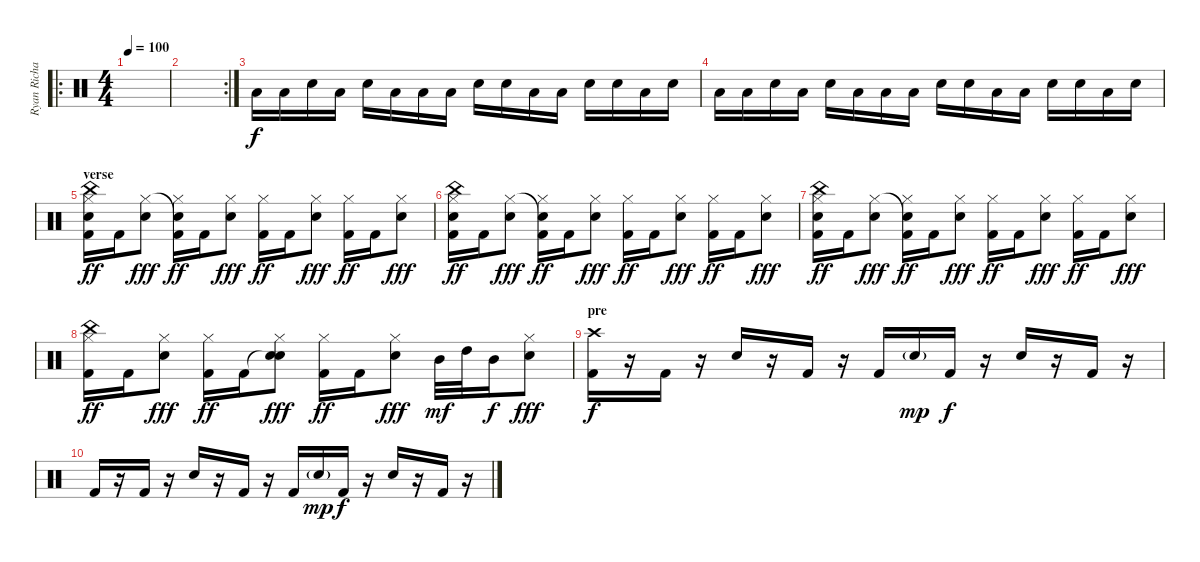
\track ("Ryan Richards" "Ryan Richa") {instrument percussion}
\staff {score}
\articulation defaults
\ro
\ts (4 4)
\tempo 100
\clef neutral
\ks c
|
\rc 2
|
"Low Tom (hit)".16 "Low Tom (hit)".16 "Snare (hit) 2".16 "Low Tom (hit)".16 "Snare (hit) 2".16 "Low Tom (hit)".16 "Low Tom (hit)".16 "Low Tom (hit)".16 "Snare (hit) 2".16 "Snare (hit) 2".16 "Low Tom (hit)".16 "Low Tom (hit)".16 "Snare (hit) 2".16 "Snare (hit) 2".16 "Low Tom (hit)".16 "Snare (hit) 2".16 |
"Low Tom (hit)".16 "Low Tom (hit)".16 "Snare (hit) 2".16 "Low Tom (hit)".16 "Snare (hit) 2".16 "Low Tom (hit)".16 "Low Tom (hit)".16 "Low Tom (hit)".16 "Snare (hit) 2".16 "Snare (hit) 2".16 "Low Tom (hit)".16 "Low Tom (hit)".16 "Snare (hit) 2".16 "Snare (hit) 2".16 "Low Tom (hit)".16 "Snare (hit) 2".16 |
\section ("" "verse")
("China (hit)" "Hi-Hat (closed)" "Snare (hit) 2" "Kick (hit) 2").16{dy ff} "Kick (hit) 2".16 ("Hi-Hat (closed)" "Electric Snare (hit)").8{dy fff} ("Snare (hit)"{t} "Hi-Hat (closed)" "Kick (hit) 2").16{dy ff} "Kick (hit) 2".16 ("Hi-Hat (closed)" "Electric Snare (hit)").8{dy fff} ("Hi-Hat (closed)" "Kick (hit) 2").16{dy ff} "Kick (hit) 2".16 ("Hi-Hat (closed)" "Electric Snare (hit)").8{dy fff} ("Hi-Hat (closed)" "Kick (hit) 2").16{dy ff} "Kick (hit) 2".16 ("Hi-Hat (closed)" "Electric Snare (hit)").8{dy fff} |
("China (hit)" "Hi-Hat (closed)" "Snare (hit) 2" "Kick (hit) 2").16{dy ff} "Kick (hit) 2".16 ("Hi-Hat (closed)" "Electric Snare (hit)").8{dy fff} ("Snare (hit)"{t} "Hi-Hat (closed)" "Kick (hit) 2").16{dy ff} "Kick (hit) 2".16 ("Hi-Hat (closed)" "Electric Snare (hit)").8{dy fff} ("Hi-Hat (closed)" "Kick (hit) 2").16{dy ff} "Kick (hit) 2".16 ("Hi-Hat (closed)" "Electric Snare (hit)").8{dy fff} ("Hi-Hat (closed)" "Kick (hit) 2").16{dy ff} "Kick (hit) 2".16 ("Hi-Hat (closed)" "Electric Snare (hit)").8{dy fff} |
("China (hit)" "Hi-Hat (closed)" "Snare (hit) 2" "Kick (hit) 2").16{dy ff} "Kick (hit) 2".16 ("Hi-Hat (closed)" "Electric Snare (hit)").8{dy fff} ("Snare (hit)"{t} "Hi-Hat (closed)" "Kick (hit) 2").16{dy ff} "Kick (hit) 2".16 ("Hi-Hat (closed)" "Electric Snare (hit)").8{dy fff} ("Hi-Hat (closed)" "Kick (hit) 2").16{dy ff} "Kick (hit) 2".16 ("Hi-Hat (closed)" "Electric Snare (hit)").8{dy fff} ("Hi-Hat (closed)" "Kick (hit) 2").16{dy ff} "Kick (hit) 2".16 ("Hi-Hat (closed)" "Electric Snare (hit)").8{dy fff} |
("China (hit)" "Hi-Hat (closed)" "Kick (hit) 2").16{dy ff} "Kick (hit) 2".16 ("Hi-Hat (closed)" "Electric Snare (hit)").8{dy fff} ("Hi-Hat (closed)" "Kick (hit) 2").16{dy ff} "Kick (hit) 2".16 ("Snare (hit)"{t} "Hi-Hat (closed)" "Electric Snare (hit)").8{dy fff} ("Hi-Hat (closed)" "Kick (hit) 2").16{dy ff} "Kick (hit) 2".16 ("Hi-Hat (closed)" "Electric Snare (hit)").8{dy fff} "Mid Tom (hit)".32{dy mf} "High Tom (hit)".32 "Mid Tom (hit)".16{dy f} ("Hi-Hat (closed)" "Electric Snare (hit)").8{dy fff} |
\section ("" "pre")
("Crash high (hit)" "Kick (hit) 2").16{dy f} r.16 "Kick (hit) 2".16 r.16 "Snare (hit) 2".16 r.16 "Kick (hit) 2".16 r.16 "Kick (hit) 2".16 "Snare (hit) 2"{g}.16{dy mp} "Kick (hit) 2".16{dy f} r.16 "Snare (hit) 2".16 r.16 "Kick (hit) 2".16 r.16 |
"Kick (hit) 2".16 r.16 "Kick (hit) 2".16 r.16 "Snare (hit) 2".16 r.16 "Kick (hit) 2".16 r.16 "Kick (hit) 2".16 "Snare (hit) 2"{g}.16{dy mp} "Kick (hit) 2".16{dy f} r.16 "Snare (hit) 2".16 r.16 "Kick (hit) 2".16 r.16
